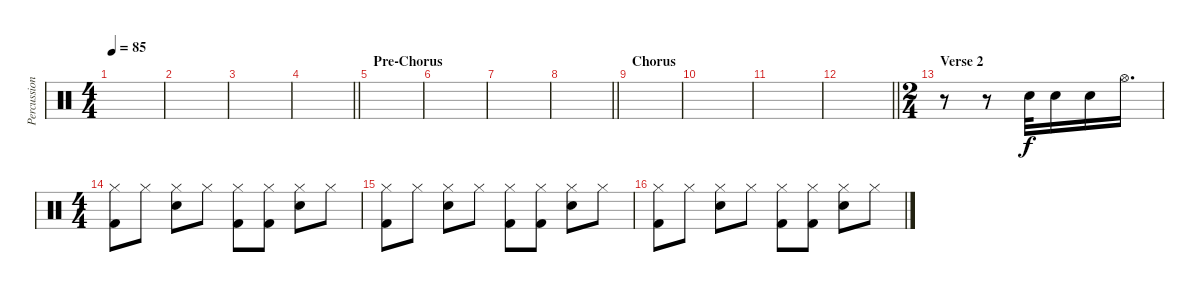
\track ("Percussion" "Percussion") {instrument percussion}
\staff {score}
\articulation defaults
\ts (4 4)
\tempo 85
\clef neutral
\ks c
|
|
|
\barLineRight lightlight
|
\section ("" "Pre-Chorus")
|
|
|
\barLineRight lightlight
|
\section ("" "Chorus")
|
|
|
\barLineRight lightlight
|
\ts (2 4)
\section ("" "Verse 2")
r.8 r.8 "Electric Snare (hit)".32 "Electric Snare (hit)".16 "Electric Snare (hit)".16 "Hi-Hat (open)".16{d} |
\ts (4 4)
("Hi-Hat (closed)" "Kick (hit) 2").8 "Hi-Hat (closed)".8 ("Hi-Hat (closed)" "Electric Snare (hit)").8 "Hi-Hat (closed)".8 ("Hi-Hat (closed)" "Kick (hit) 2").8 ("Hi-Hat (closed)" "Kick (hit) 2").8 ("Hi-Hat (closed)" "Electric Snare (hit)").8 "Hi-Hat (closed)".8 |
("Hi-Hat (closed)" "Kick (hit) 2").8 "Hi-Hat (closed)".8 ("Hi-Hat (closed)" "Electric Snare (hit)").8 "Hi-Hat (closed)".8 ("Hi-Hat (closed)" "Kick (hit) 2").8 ("Hi-Hat (closed)" "Kick (hit) 2").8 ("Hi-Hat (closed)" "Electric Snare (hit)").8 "Hi-Hat (closed)".8 |
("Hi-Hat (closed)" "Kick (hit) 2").8 "Hi-Hat (closed)".8 ("Hi-Hat (closed)" "Electric Snare (hit)").8 "Hi-Hat (closed)".8 ("Hi-Hat (closed)" "Kick (hit) 2").8 ("Hi-Hat (closed)" "Kick (hit) 2").8 ("Hi-Hat (closed)" "Electric Snare (hit)").8 "Hi-Hat (closed)".8
